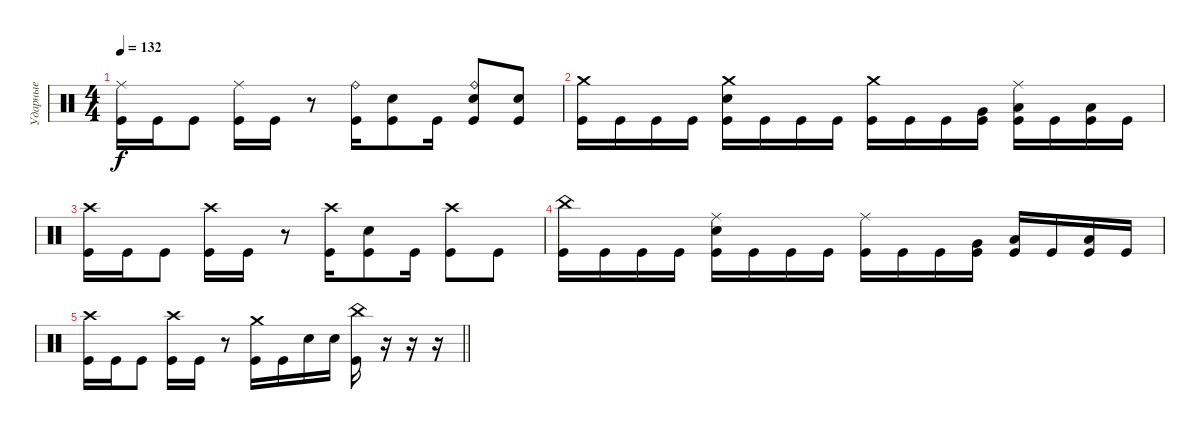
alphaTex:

\track ("Ударные" "Ударные") {instrument percussion}
\staff {score}
\articulation defaults
\ts (4 4)
\tempo 132
\clef neutral
\ks c
("Ride (middle)" "Kick (hit)").16{dy f} "Kick (hit)".16 "Kick (hit)".8 ("Ride (middle)" "Kick (hit)").16 "Kick (hit)".16 r.8 ("Ride (bell)" "Kick (hit)").16 ("Electric Snare (hit)" "Kick (hit)").8 "Kick (hit)".16 ("Ride (bell)" "Electric Snare (hit)" "Kick (hit)").8 ("Electric Snare (hit)" "Kick (hit)").8 |
("Crash medium (hit)" "Kick (hit)").16 "Kick (hit)".16 "Kick (hit)".16 "Kick (hit)".16 ("Crash medium (hit)" "Electric Snare (hit)" "Kick (hit)").16 "Kick (hit)".16 "Kick (hit)".16 "Kick (hit)".16 ("Crash medium (hit)" "Kick (hit)").16 "Kick (hit)".16 "Kick (hit)".16 ("Very Low Tom (hit)" "Kick (hit)").16 ("Ride (middle)" "Low Tom (hit)" "Kick (hit)").16 "Kick (hit)".16 ("Low Tom (hit)" "Kick (hit)").16 "Kick (hit)".16 |
("Crash high (hit)" "Kick (hit)").16 "Kick (hit)".16 "Kick (hit)".8 ("Crash high (hit)" "Kick (hit)").16 "Kick (hit)".16 r.8 ("Crash high (hit)" "Kick (hit)").16 ("Electric Snare (hit)" "Kick (hit)").8 "Kick (hit)".16 ("Crash high (hit)" "Kick (hit)").8 "Kick (hit)".8 |
("China (hit)" "Kick (hit)").16 "Kick (hit)".16 "Kick (hit)".16 "Kick (hit)".16 ("Ride (middle)" "Electric Snare (hit)" "Kick (hit)").16 "Kick (hit)".16 "Kick (hit)".16 "Kick (hit)".16 ("Ride (middle)" "Kick (hit)").16 "Kick (hit)".16 "Kick (hit)".16 ("Very Low Tom (hit)" "Kick (hit)").16 ("Low Tom (hit)" "Kick (hit)").16 "Kick (hit)".16 ("Low Tom (hit)" "Kick (hit)").16 "Kick (hit)".16 |
\barLineRight lightlight
("Crash high (hit)" "Kick (hit)").16 "Kick (hit)".16 "Kick (hit)".8 ("Crash high (hit)" "Kick (hit)").16 "Kick (hit)".16 r.8 ("Crash medium (hit)" "Kick (hit)").16 "Kick (hit)".16 "Electric Snare (hit)".16 "Electric Snare (hit)".16 ("China (hit)" "Kick (hit)").16 r.16 r.16 r.16
